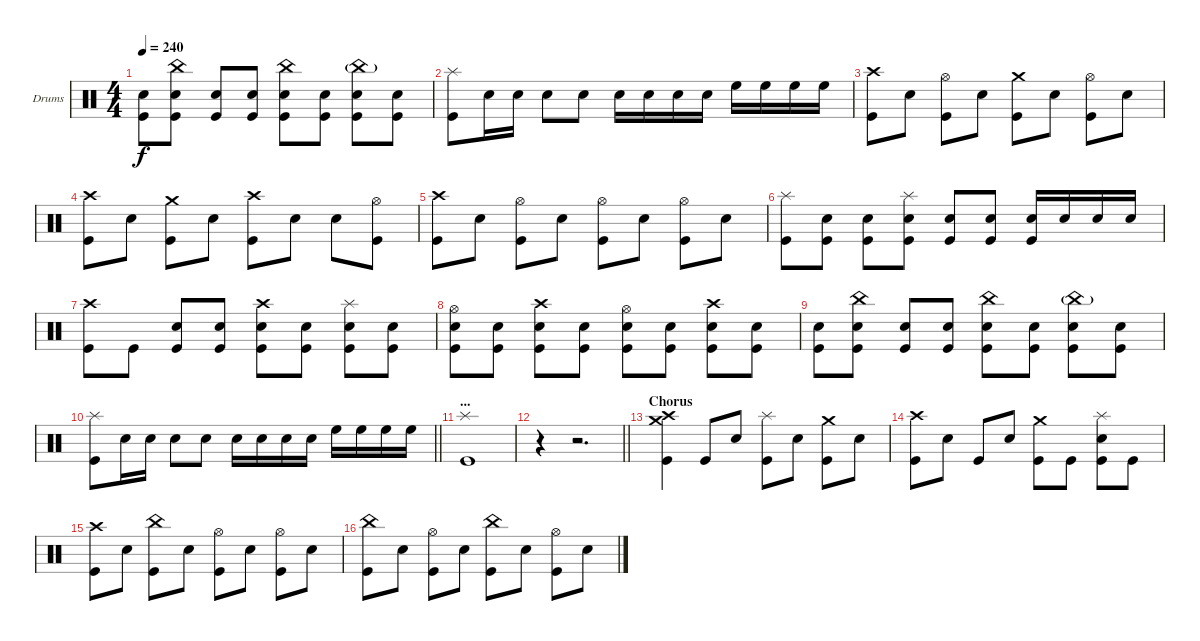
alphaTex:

\bracketExtendMode groupsimilarinstruments
\firstSystemTrackNameOrientation horizontal
\otherSystemsTrackNameOrientation horizontal
\track ("Drumkit" "Drums") {instrument percussion}
\staff {score}
\articulation defaults
\ts (4 4)
\tempo 240
\clef neutral
\ks c
("Snare (hit) 2" "Kick (hit)").8{dy f} ("China (hit)" "Snare (hit) 2" "Kick (hit)").8 ("Snare (hit) 2" "Kick (hit)").8 ("Snare (hit) 2" "Kick (hit)").8 ("China (hit)" "Snare (hit) 2" "Kick (hit)").8 ("Snare (hit) 2" "Kick (hit)").8 ("China (hit)"{g} "Snare (hit) 2" "Kick (hit)").8 ("Snare (hit) 2" "Kick (hit)").8 |
("Splash (hit)" "Kick (hit)").8 "Snare (hit) 2".16 "Snare (hit) 2".16 "Snare (hit) 2".8 "Snare (hit) 2".8 "Snare (hit) 2".16 "Snare (hit) 2".16 "Snare (hit) 2".16 "Snare (hit) 2".16 "High Floor Tom (hit)".16 "High Floor Tom (hit)".16 "High Floor Tom (hit)".16 "High Floor Tom (hit)".16 |
("Crash high (hit)" "Kick (hit)").8 "Snare (hit) 2".8 ("Hi-Hat (open)" "Kick (hit)").8 "Snare (hit) 2".8 ("Crash medium (hit)" "Kick (hit)").8 "Snare (hit) 2".8 ("Hi-Hat (open)" "Kick (hit)").8 "Snare (hit) 2".8 |
("Crash high (hit)" "Kick (hit)").8 "Snare (hit) 2".8 ("Crash medium (hit)" "Kick (hit)").8 "Snare (hit) 2".8 ("Crash high (hit)" "Kick (hit)").8 "Snare (hit) 2".8 "Snare (hit) 2".8 ("Hi-Hat (open)" "Kick (hit)").8 |
("Crash high (hit)" "Kick (hit)").8 "Snare (hit) 2".8 ("Hi-Hat (open)" "Kick (hit)").8 "Snare (hit) 2".8 ("Hi-Hat (open)" "Kick (hit)").8 "Snare (hit) 2".8 ("Hi-Hat (open)" "Kick (hit)").8 "Snare (hit) 2".8 |
("Splash (hit)" "Kick (hit)").8 ("Snare (hit) 2" "Kick (hit)").8 ("Snare (hit) 2" "Kick (hit)").8 ("Splash (hit)" "Snare (hit) 2" "Kick (hit)").8 ("Snare (hit) 2" "Kick (hit)").8 ("Snare (hit) 2" "Kick (hit)").8 ("Snare (hit) 2" "Kick (hit)").16 "Snare (hit) 2".16 "Snare (hit) 2".16 "Snare (hit) 2".16 |
("Crash high (hit)" "Kick (hit)").8 "Kick (hit)".8 ("Snare (hit) 2" "Kick (hit)").8 ("Snare (hit) 2" "Kick (hit)").8 ("Crash high (hit)" "Snare (hit) 2" "Kick (hit)").8 ("Snare (hit) 2" "Kick (hit)").8 ("Splash (hit)" "Snare (hit) 2" "Kick (hit)").8 ("Snare (hit) 2" "Kick (hit)").8 |
("Hi-Hat (open)" "Snare (hit) 2" "Kick (hit)").8 ("Snare (hit) 2" "Kick (hit)").8 ("Crash high (hit)" "Snare (hit) 2" "Kick (hit)").8 ("Snare (hit) 2" "Kick (hit)").8 ("Hi-Hat (open)" "Snare (hit) 2" "Kick (hit)").8 ("Snare (hit) 2" "Kick (hit)").8 ("Crash high (hit)" "Snare (hit) 2" "Kick (hit)").8 ("Snare (hit) 2" "Kick (hit)").8 |
("Snare (hit) 2" "Kick (hit)").8 ("China (hit)" "Snare (hit) 2" "Kick (hit)").8 ("Snare (hit) 2" "Kick (hit)").8 ("Snare (hit) 2" "Kick (hit)").8 ("China (hit)" "Snare (hit) 2" "Kick (hit)").8 ("Snare (hit) 2" "Kick (hit)").8 ("China (hit)"{g} "Snare (hit) 2" "Kick (hit)").8 ("Snare (hit) 2" "Kick (hit)").8 |
\barLineRight lightlight
("Splash (hit)" "Kick (hit)").8 "Snare (hit) 2".16 "Snare (hit) 2".16 "Snare (hit) 2".8 "Snare (hit) 2".8 "Snare (hit) 2".16 "Snare (hit) 2".16 "Snare (hit) 2".16 "Snare (hit) 2".16 "High Floor Tom (hit)".16 "High Floor Tom (hit)".16 "High Floor Tom (hit)".16 "High Floor Tom (hit)".16 |
\section ("" "...")
("Splash (hit)" "Kick (hit)").1 |
\barLineRight lightlight
r.4 r.2{d} |
\section ("" "Chorus")
("Crash medium (hit)" "Crash high (hit)" "Kick (hit)").4 "Kick (hit)".8 "Snare (hit) 2".8 ("Splash (hit)" "Kick (hit)").8 "Snare (hit) 2".8 ("Crash medium (hit)" "Kick (hit)").8 "Snare (hit) 2".8 |
("Crash high (hit)" "Kick (hit)").8 "Snare (hit) 2".8 "Kick (hit)".8 "Snare (hit) 2".8 ("Crash medium (hit)" "Kick (hit)").8 "Kick (hit)".8 ("Splash (hit)" "Snare (hit) 2" "Kick (hit)").8 "Kick (hit)".8 |
("Crash high (hit)" "Kick (hit)").8 "Snare (hit) 2".8 ("China (hit)" "Kick (hit)").8 "Snare (hit) 2".8 ("Hi-Hat (open)" "Kick (hit)").8 "Snare (hit) 2".8 ("Hi-Hat (open)" "Kick (hit)").8 "Snare (hit) 2".8 |
("China (hit)" "Kick (hit)").8 "Snare (hit) 2".8 ("Hi-Hat (open)" "Kick (hit)").8 "Snare (hit) 2".8 ("China (hit)" "Kick (hit)").8 "Snare (hit) 2".8 ("Hi-Hat (open)" "Kick (hit)").8 "Snare (hit) 2".8
